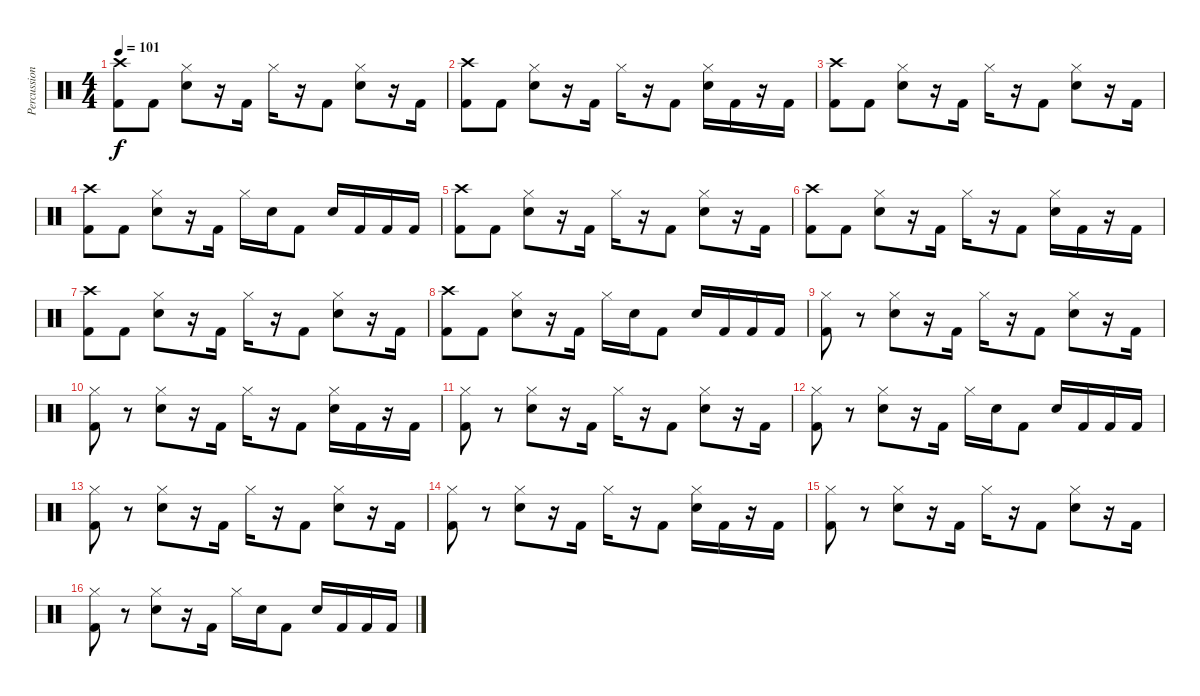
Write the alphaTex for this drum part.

\track ("Percussions" "Percussion") {instrument percussion}
\staff {score}
\articulation defaults
\ts (4 4)
\tempo 101
\clef neutral
\ks c
("Crash high (hit)" "Kick (hit) 2").8{dy f volume 16} "Kick (hit) 2".8 ("Snare (hit) 2" "Hi-Hat (closed)").8 r.16 "Kick (hit) 2".16 "Hi-Hat (closed)".16 r.16 "Kick (hit) 2".8 ("Snare (hit) 2" "Hi-Hat (closed)").8 r.16 "Kick (hit) 2".16 |
("Crash high (hit)" "Kick (hit) 2").8 "Kick (hit) 2".8 ("Snare (hit) 2" "Hi-Hat (closed)").8 r.16 "Kick (hit) 2".16 "Hi-Hat (closed)".16 r.16 "Kick (hit) 2".8 ("Snare (hit) 2" "Hi-Hat (closed)").16 "Kick (hit) 2".16 r.16 "Kick (hit) 2".16 |
("Crash high (hit)" "Kick (hit) 2").8 "Kick (hit) 2".8 ("Snare (hit) 2" "Hi-Hat (closed)").8 r.16 "Kick (hit) 2".16 "Hi-Hat (closed)".16 r.16 "Kick (hit) 2".8 ("Snare (hit) 2" "Hi-Hat (closed)").8 r.16 "Kick (hit) 2".16 |
("Crash high (hit)" "Kick (hit) 2").8 "Kick (hit) 2".8 ("Snare (hit) 2" "Hi-Hat (closed)").8 r.16 "Kick (hit) 2".16 "Hi-Hat (closed)".16 "Snare (hit) 2".16 "Kick (hit) 2".8 "Snare (hit) 2".16 "Kick (hit) 2".16 "Kick (hit) 2".16 "Kick (hit) 2".16 |
("Crash high (hit)" "Kick (hit) 2").8 "Kick (hit) 2".8 ("Snare (hit) 2" "Hi-Hat (closed)").8 r.16 "Kick (hit) 2".16 "Hi-Hat (closed)".16 r.16 "Kick (hit) 2".8 ("Snare (hit) 2" "Hi-Hat (closed)").8 r.16 "Kick (hit) 2".16 |
("Crash high (hit)" "Kick (hit) 2").8 "Kick (hit) 2".8 ("Snare (hit) 2" "Hi-Hat (closed)").8 r.16 "Kick (hit) 2".16 "Hi-Hat (closed)".16 r.16 "Kick (hit) 2".8 ("Snare (hit) 2" "Hi-Hat (closed)").16 "Kick (hit) 2".16 r.16 "Kick (hit) 2".16 |
("Crash high (hit)" "Kick (hit) 2").8 "Kick (hit) 2".8 ("Snare (hit) 2" "Hi-Hat (closed)").8 r.16 "Kick (hit) 2".16 "Hi-Hat (closed)".16 r.16 "Kick (hit) 2".8 ("Snare (hit) 2" "Hi-Hat (closed)").8 r.16 "Kick (hit) 2".16 |
("Crash high (hit)" "Kick (hit) 2").8 "Kick (hit) 2".8 ("Snare (hit) 2" "Hi-Hat (closed)").8 r.16 "Kick (hit) 2".16 "Hi-Hat (closed)".16 "Snare (hit) 2".16 "Kick (hit) 2".8 "Snare (hit) 2".16 "Kick (hit) 2".16 "Kick (hit) 2".16 "Kick (hit) 2".16 |
("Hi-Hat (closed)" "Kick (hit) 2").8 r.8 ("Snare (hit) 2" "Hi-Hat (closed)").8 r.16 "Kick (hit) 2".16 "Hi-Hat (closed)".16 r.16 "Kick (hit) 2".8 ("Snare (hit) 2" "Hi-Hat (closed)").8 r.16 "Kick (hit) 2".16 |
("Hi-Hat (closed)" "Kick (hit) 2").8 r.8 ("Snare (hit) 2" "Hi-Hat (closed)").8 r.16 "Kick (hit) 2".16 "Hi-Hat (closed)".16 r.16 "Kick (hit) 2".8 ("Snare (hit) 2" "Hi-Hat (closed)").16 "Kick (hit) 2".16 r.16 "Kick (hit) 2".16 |
("Hi-Hat (closed)" "Kick (hit) 2").8 r.8 ("Snare (hit) 2" "Hi-Hat (closed)").8 r.16 "Kick (hit) 2".16 "Hi-Hat (closed)".16 r.16 "Kick (hit) 2".8 ("Snare (hit) 2" "Hi-Hat (closed)").8 r.16 "Kick (hit) 2".16 |
("Hi-Hat (closed)" "Kick (hit) 2").8 r.8 ("Snare (hit) 2" "Hi-Hat (closed)").8 r.16 "Kick (hit) 2".16 "Hi-Hat (closed)".16 "Snare (hit) 2".16 "Kick (hit) 2".8 "Snare (hit) 2".16 "Kick (hit) 2".16 "Kick (hit) 2".16 "Kick (hit) 2".16 |
("Hi-Hat (closed)" "Kick (hit) 2").8 r.8 ("Snare (hit) 2" "Hi-Hat (closed)").8 r.16 "Kick (hit) 2".16 "Hi-Hat (closed)".16 r.16 "Kick (hit) 2".8 ("Snare (hit) 2" "Hi-Hat (closed)").8 r.16 "Kick (hit) 2".16 |
("Hi-Hat (closed)" "Kick (hit) 2").8 r.8 ("Snare (hit) 2" "Hi-Hat (closed)").8 r.16 "Kick (hit) 2".16 "Hi-Hat (closed)".16 r.16 "Kick (hit) 2".8 ("Snare (hit) 2" "Hi-Hat (closed)").16 "Kick (hit) 2".16 r.16 "Kick (hit) 2".16 |
("Hi-Hat (closed)" "Kick (hit) 2").8 r.8 ("Snare (hit) 2" "Hi-Hat (closed)").8 r.16 "Kick (hit) 2".16 "Hi-Hat (closed)".16 r.16 "Kick (hit) 2".8 ("Snare (hit) 2" "Hi-Hat (closed)").8 r.16 "Kick (hit) 2".16 |
("Hi-Hat (closed)" "Kick (hit) 2").8 r.8 ("Snare (hit) 2" "Hi-Hat (closed)").8 r.16 "Kick (hit) 2".16 "Hi-Hat (closed)".16 "Snare (hit) 2".16 "Kick (hit) 2".8 "Snare (hit) 2".16 "Kick (hit) 2".16 "Kick (hit) 2".16 "Kick (hit) 2".16
